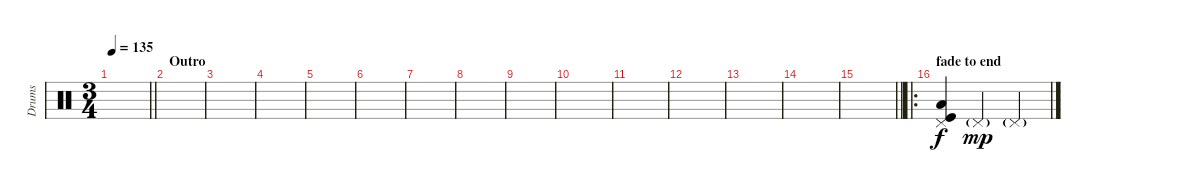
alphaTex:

\track ("Drums" "Drums") {instrument percussion}
\staff {score}
\articulation defaults
\ts (3 4)
\tempo 135
\clef neutral
\barLineRight lightlight
\ks c
|
\section ("" "Outro")
|
|
|
|
|
|
|
|
|
|
|
|
|
\barLineRight lightlight
|
\ro
\section ("" "fade to end")
("Pedal Hi-Hat (hit)" "Low Floor Tom (hit)" "Kick (hit)").4 "Pedal Hi-Hat (hit)"{g}.4{dy mp} "Pedal Hi-Hat (hit)"{g}.4
